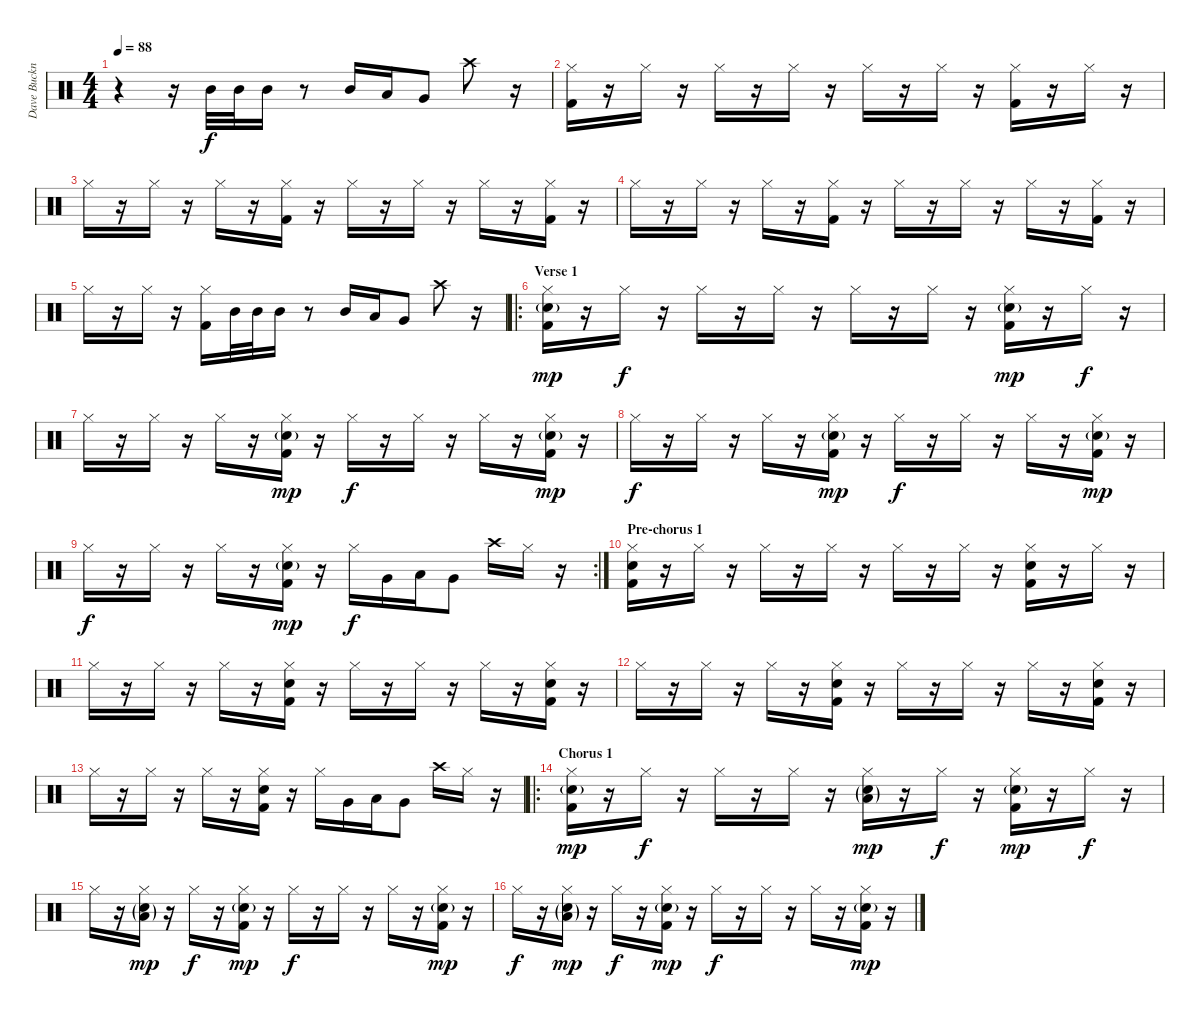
\track ("Dave Buckner" "Dave Buckn") {instrument percussion}
\staff {score}
\articulation defaults
\ts (4 4)
\tempo 88
\clef neutral
\ks c
r.4{dy f} r.16 "Mid Tom (hit)".32 "Mid Tom (hit)".32 "Mid Tom (hit)".16 r.8 "Mid Tom (hit)".16 "Low Tom (hit)".16 "Very Low Tom (hit)".8 "Crash high (hit)".8 r.16 |
("Hi-Hat (closed)" "Kick (hit) 2").16 r.16 "Hi-Hat (closed)".16 r.16 "Hi-Hat (closed)".16 r.16 "Hi-Hat (closed)".16 r.16 "Hi-Hat (closed)".16 r.16 "Hi-Hat (closed)".16 r.16 ("Hi-Hat (closed)" "Kick (hit) 2").16 r.16 "Hi-Hat (closed)".16 r.16 |
"Hi-Hat (closed)".16 r.16 "Hi-Hat (closed)".16 r.16 "Hi-Hat (closed)".16 r.16 ("Hi-Hat (closed)" "Kick (hit) 2").16 r.16 "Hi-Hat (closed)".16 r.16 "Hi-Hat (closed)".16 r.16 "Hi-Hat (closed)".16 r.16 ("Hi-Hat (closed)" "Kick (hit) 2").16 r.16 |
"Hi-Hat (closed)".16 r.16 "Hi-Hat (closed)".16 r.16 "Hi-Hat (closed)".16 r.16 ("Hi-Hat (closed)" "Kick (hit) 2").16 r.16 "Hi-Hat (closed)".16 r.16 "Hi-Hat (closed)".16 r.16 "Hi-Hat (closed)".16 r.16 ("Hi-Hat (closed)" "Kick (hit) 2").16 r.16 |
"Hi-Hat (closed)".16 r.16 "Hi-Hat (closed)".16 r.16 ("Hi-Hat (closed)" "Kick (hit) 2").16 "Mid Tom (hit)".32 "Mid Tom (hit)".32 "Mid Tom (hit)".16 r.8 "Mid Tom (hit)".16 "Low Tom (hit)".16 "Very Low Tom (hit)".8 "Crash high (hit)".8 r.16 |
\ro
\section ("" "Verse 1")
("Hi-Hat (closed)" "Snare (hit) 2"{g} "Kick (hit) 2").16{dy mp} r.16 "Hi-Hat (closed)".16{dy f} r.16 "Hi-Hat (closed)".16 r.16 "Hi-Hat (closed)".16 r.16 "Hi-Hat (closed)".16 r.16 "Hi-Hat (closed)".16 r.16 ("Hi-Hat (closed)" "Snare (hit) 2"{g} "Kick (hit) 2").16{dy mp} r.16 "Hi-Hat (closed)".16{dy f} r.16 |
"Hi-Hat (closed)".16 r.16 "Hi-Hat (closed)".16 r.16 "Hi-Hat (closed)".16 r.16 ("Hi-Hat (closed)" "Snare (hit) 2"{g} "Kick (hit) 2").16{dy mp} r.16 "Hi-Hat (closed)".16{dy f} r.16 "Hi-Hat (closed)".16 r.16 "Hi-Hat (closed)".16 r.16 ("Hi-Hat (closed)" "Snare (hit) 2"{g} "Kick (hit) 2").16{dy mp} r.16 |
"Hi-Hat (closed)".16{dy f} r.16 "Hi-Hat (closed)".16 r.16 "Hi-Hat (closed)".16 r.16 ("Hi-Hat (closed)" "Snare (hit) 2"{g} "Kick (hit) 2").16{dy mp} r.16 "Hi-Hat (closed)".16{dy f} r.16 "Hi-Hat (closed)".16 r.16 "Hi-Hat (closed)".16 r.16 ("Hi-Hat (closed)" "Snare (hit) 2"{g} "Kick (hit) 2").16{dy mp} r.16 |
\rc 2 "Hi-Hat (closed)".16{dy f}
r.16 "Hi-Hat (closed)".16 r.16 "Hi-Hat (closed)".16 r.16 ("Hi-Hat (closed)" "Snare (hit) 2"{g} "Kick (hit) 2").16{dy mp} r.16 "Hi-Hat (closed)".16{dy f} "Very Low Tom (hit)".16 "Low Floor Tom (hit)".16 "Very Low Tom (hit)".8 "Crash high (hit)".16 "Hi-Hat (closed)".16 r.16 |
\section ("" "Pre-chorus 1")
("Hi-Hat (closed)" "Snare (hit) 2" "Kick (hit) 2").16 r.16 "Hi-Hat (closed)".16 r.16 "Hi-Hat (closed)".16 r.16 "Hi-Hat (closed)".16 r.16 "Hi-Hat (closed)".16 r.16 "Hi-Hat (closed)".16 r.16 ("Hi-Hat (closed)" "Snare (hit) 2" "Kick (hit) 2").16 r.16 "Hi-Hat (closed)".16 r.16 |
"Hi-Hat (closed)".16 r.16 "Hi-Hat (closed)".16 r.16 "Hi-Hat (closed)".16 r.16 ("Hi-Hat (closed)" "Snare (hit) 2" "Kick (hit) 2").16 r.16 "Hi-Hat (closed)".16 r.16 "Hi-Hat (closed)".16 r.16 "Hi-Hat (closed)".16 r.16 ("Hi-Hat (closed)" "Snare (hit) 2" "Kick (hit) 2").16 r.16 |
"Hi-Hat (closed)".16 r.16 "Hi-Hat (closed)".16 r.16 "Hi-Hat (closed)".16 r.16 ("Hi-Hat (closed)" "Snare (hit) 2" "Kick (hit) 2").16 r.16 "Hi-Hat (closed)".16 r.16 "Hi-Hat (closed)".16 r.16 "Hi-Hat (closed)".16 r.16 ("Hi-Hat (closed)" "Snare (hit) 2" "Kick (hit) 2").16 r.16 |
"Hi-Hat (closed)".16 r.16 "Hi-Hat (closed)".16 r.16 "Hi-Hat (closed)".16 r.16 ("Hi-Hat (closed)" "Snare (hit) 2" "Kick (hit) 2").16 r.16 "Hi-Hat (closed)".16 "Very Low Tom (hit)".16 "Low Floor Tom (hit)".16 "Very Low Tom (hit)".8 "Crash high (hit)".16 "Hi-Hat (closed)".16 r.16 |
\ro
\section ("" "Chorus 1")
("Hi-Hat (closed)" "Snare (hit) 2"{g} "Kick (hit) 2").16{dy mp} r.16 "Hi-Hat (closed)".16{dy f} r.16 "Hi-Hat (closed)".16 r.16 "Hi-Hat (closed)".16 r.16 ("Hi-Hat (closed)" "Low Tom (hit)"{g} "Snare (hit) 2"{g}).16{dy mp} r.16 "Hi-Hat (closed)".16{dy f} r.16 ("Hi-Hat (closed)" "Snare (hit) 2"{g} "Kick (hit) 2").16{dy mp} r.16 "Hi-Hat (closed)".16{dy f} r.16 |
"Hi-Hat (closed)".16 r.16 ("Hi-Hat (closed)" "Low Tom (hit)"{g} "Snare (hit) 2"{g}).16{dy mp} r.16 "Hi-Hat (closed)".16{dy f} r.16 ("Hi-Hat (closed)" "Snare (hit) 2"{g} "Kick (hit) 2").16{dy mp} r.16 "Hi-Hat (closed)".16{dy f} r.16 "Hi-Hat (closed)".16 r.16 "Hi-Hat (closed)".16 r.16 ("Hi-Hat (closed)" "Snare (hit) 2"{g} "Kick (hit) 2").16{dy mp} r.16 |
"Hi-Hat (closed)".16{dy f} r.16 ("Hi-Hat (closed)" "Low Tom (hit)"{g} "Snare (hit) 2"{g}).16{dy mp} r.16 "Hi-Hat (closed)".16{dy f} r.16 ("Hi-Hat (closed)" "Snare (hit) 2"{g} "Kick (hit) 2").16{dy mp} r.16 "Hi-Hat (closed)".16{dy f} r.16 "Hi-Hat (closed)".16 r.16 "Hi-Hat (closed)".16 r.16 ("Hi-Hat (closed)" "Snare (hit) 2"{g} "Kick (hit) 2").16{dy mp} r.16
